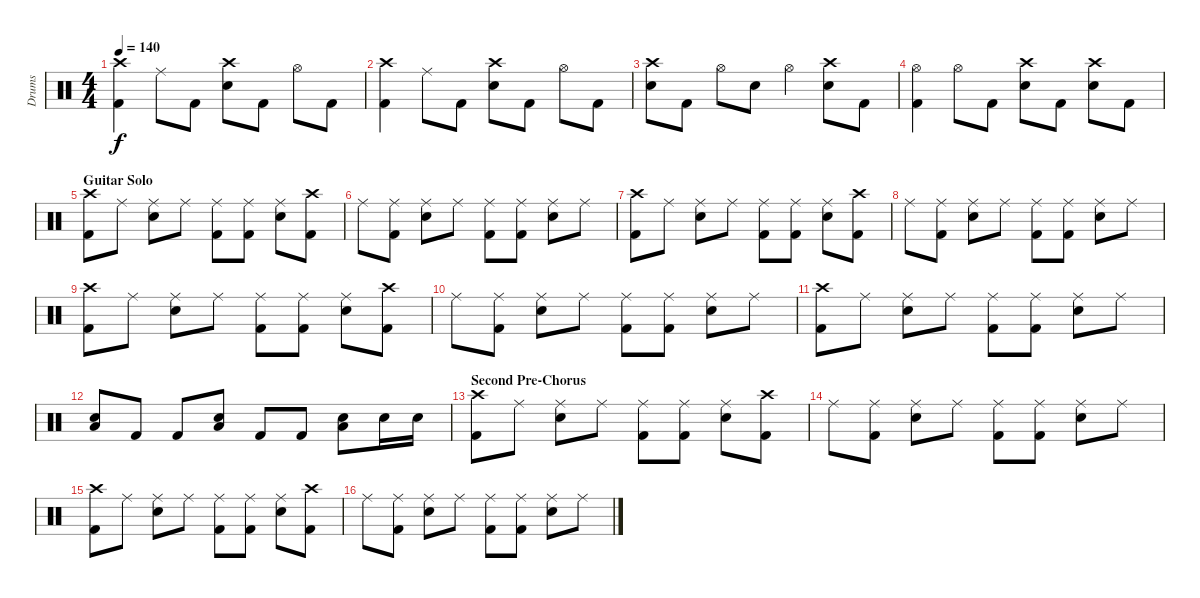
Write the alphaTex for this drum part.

\track ("Drums" "Drums") {instrument percussion}
\staff {score}
\articulation defaults
\ts (4 4)
\tempo 140
\clef neutral
\ks c
("Crash high (hit)" "Kick (hit) 2").4{dy f} "Ride (middle)".8 "Kick (hit) 2".8 ("Crash high (hit)" "Electric Snare (hit)").8 "Kick (hit) 2".8 "Hi-Hat (open)".8 "Kick (hit) 2".8 |
("Crash high (hit)" "Kick (hit) 2").4 "Ride (middle)".8 "Kick (hit) 2".8 ("Crash high (hit)" "Electric Snare (hit)").8 "Kick (hit) 2".8 "Hi-Hat (open)".8 "Kick (hit) 2".8 |
("Crash high (hit)" "Electric Snare (hit)").8 "Kick (hit) 2".8 "Hi-Hat (open)".8 "Electric Snare (hit)".8 "Hi-Hat (open)".4 ("Crash high (hit)" "Electric Snare (hit)").8 "Kick (hit) 2".8 |
("Hi-Hat (open)" "Kick (hit) 2").4 "Hi-Hat (open)".8 "Kick (hit) 2".8 ("Crash high (hit)" "Electric Snare (hit)").8 "Kick (hit) 2".8 ("Crash high (hit)" "Electric Snare (hit)").8 "Kick (hit) 2".8 |
\section ("" "Guitar Solo")
("Crash high (hit)" "Kick (hit) 2").8 "Ride (middle)".8 ("Ride (middle)" "Electric Snare (hit)").8 "Ride (middle)".8 ("Ride (middle)" "Kick (hit) 2").8 ("Ride (middle)" "Kick (hit) 2").8 ("Ride (middle)" "Electric Snare (hit)").8 ("Crash high (hit)" "Kick (hit) 2").8 |
"Ride (middle)".8 ("Ride (middle)" "Kick (hit) 2").8 ("Ride (middle)" "Electric Snare (hit)").8 "Ride (middle)".8 ("Ride (middle)" "Kick (hit) 2").8 ("Ride (middle)" "Kick (hit) 2").8 ("Ride (middle)" "Electric Snare (hit)").8 "Ride (middle)".8 |
("Crash high (hit)" "Kick (hit) 2").8 "Ride (middle)".8 ("Ride (middle)" "Electric Snare (hit)").8 "Ride (middle)".8 ("Ride (middle)" "Kick (hit) 2").8 ("Ride (middle)" "Kick (hit) 2").8 ("Ride (middle)" "Electric Snare (hit)").8 ("Crash high (hit)" "Kick (hit) 2").8 |
"Ride (middle)".8 ("Ride (middle)" "Kick (hit) 2").8 ("Ride (middle)" "Electric Snare (hit)").8 "Ride (middle)".8 ("Ride (middle)" "Kick (hit) 2").8 ("Ride (middle)" "Kick (hit) 2").8 ("Ride (middle)" "Electric Snare (hit)").8 "Ride (middle)".8 |
("Crash high (hit)" "Kick (hit) 2").8 "Ride (middle)".8 ("Ride (middle)" "Electric Snare (hit)").8 "Ride (middle)".8 ("Ride (middle)" "Kick (hit) 2").8 ("Ride (middle)" "Kick (hit) 2").8 ("Ride (middle)" "Electric Snare (hit)").8 ("Crash high (hit)" "Kick (hit) 2").8 |
"Ride (middle)".8 ("Ride (middle)" "Kick (hit) 2").8 ("Ride (middle)" "Electric Snare (hit)").8 "Ride (middle)".8 ("Ride (middle)" "Kick (hit) 2").8 ("Ride (middle)" "Kick (hit) 2").8 ("Ride (middle)" "Electric Snare (hit)").8 "Ride (middle)".8 |
("Crash high (hit)" "Kick (hit) 2").8 "Ride (middle)".8 ("Ride (middle)" "Electric Snare (hit)").8 "Ride (middle)".8 ("Ride (middle)" "Kick (hit) 2").8 ("Ride (middle)" "Kick (hit) 2").8 ("Ride (middle)" "Electric Snare (hit)").8 "Ride (middle)".8 |
("Electric Snare (hit)" "Low Floor Tom (hit)").8 "Kick (hit) 2".8 "Kick (hit) 2".8 ("Electric Snare (hit)" "Low Floor Tom (hit)").8 "Kick (hit) 2".8 "Kick (hit) 2".8 ("Electric Snare (hit)" "Low Floor Tom (hit)").8 "Electric Snare (hit)".16 "Electric Snare (hit)".16 |
\section ("" "Second Pre-Chorus")
("Crash high (hit)" "Kick (hit) 2").8 "Ride (middle)".8 ("Ride (middle)" "Electric Snare (hit)").8 "Ride (middle)".8 ("Ride (middle)" "Kick (hit) 2").8 ("Ride (middle)" "Kick (hit) 2").8 ("Ride (middle)" "Electric Snare (hit)").8 ("Crash high (hit)" "Kick (hit) 2").8 |
"Ride (middle)".8 ("Ride (middle)" "Kick (hit) 2").8 ("Ride (middle)" "Electric Snare (hit)").8 "Ride (middle)".8 ("Ride (middle)" "Kick (hit) 2").8 ("Ride (middle)" "Kick (hit) 2").8 ("Ride (middle)" "Electric Snare (hit)").8 "Ride (middle)".8 |
("Crash high (hit)" "Kick (hit) 2").8 "Ride (middle)".8 ("Ride (middle)" "Electric Snare (hit)").8 "Ride (middle)".8 ("Ride (middle)" "Kick (hit) 2").8 ("Ride (middle)" "Kick (hit) 2").8 ("Ride (middle)" "Electric Snare (hit)").8 ("Crash high (hit)" "Kick (hit) 2").8 |
"Ride (middle)".8 ("Ride (middle)" "Kick (hit) 2").8 ("Ride (middle)" "Electric Snare (hit)").8 "Ride (middle)".8 ("Ride (middle)" "Kick (hit) 2").8 ("Ride (middle)" "Kick (hit) 2").8 ("Ride (middle)" "Electric Snare (hit)").8 "Ride (middle)".8
